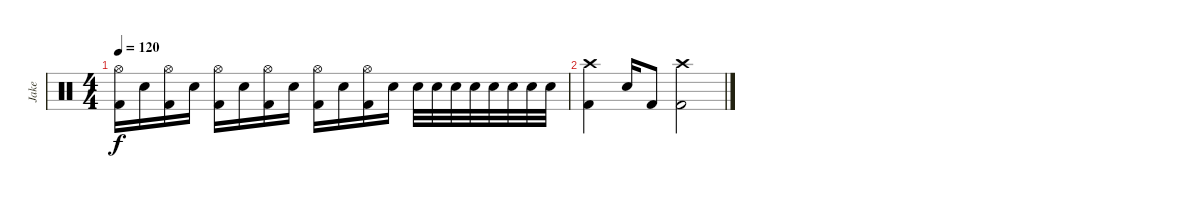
\track ("Jake" "Jake") {instrument percussion}
\staff {score}
\articulation defaults
\ts (4 4)
\tempo 120
\clef neutral
\ks c
("Hi-Hat (open)" "Kick (hit) 2").16{dy f} "Snare (hit) 2".16 ("Hi-Hat (open)" "Kick (hit) 2").16 "Snare (hit) 2".16 ("Hi-Hat (open)" "Kick (hit) 2").16 "Snare (hit) 2".16 ("Hi-Hat (open)" "Kick (hit) 2").16 "Snare (hit) 2".16 ("Hi-Hat (open)" "Kick (hit) 2").16 "Snare (hit) 2".16 ("Hi-Hat (open)" "Kick (hit) 2").16 "Snare (hit) 2".16 "Snare (hit) 2".32 "Snare (hit) 2".32 "Snare (hit) 2".32 "Snare (hit) 2".32 "Snare (hit) 2".32 "Snare (hit) 2".32 "Snare (hit) 2".32 "Snare (hit) 2".32 |
("Crash high (hit)" "Kick (hit) 2").4 "Snare (hit) 2".16 "Kick (hit) 2".8 ("Crash high (hit)" "Kick (hit) 2").2
